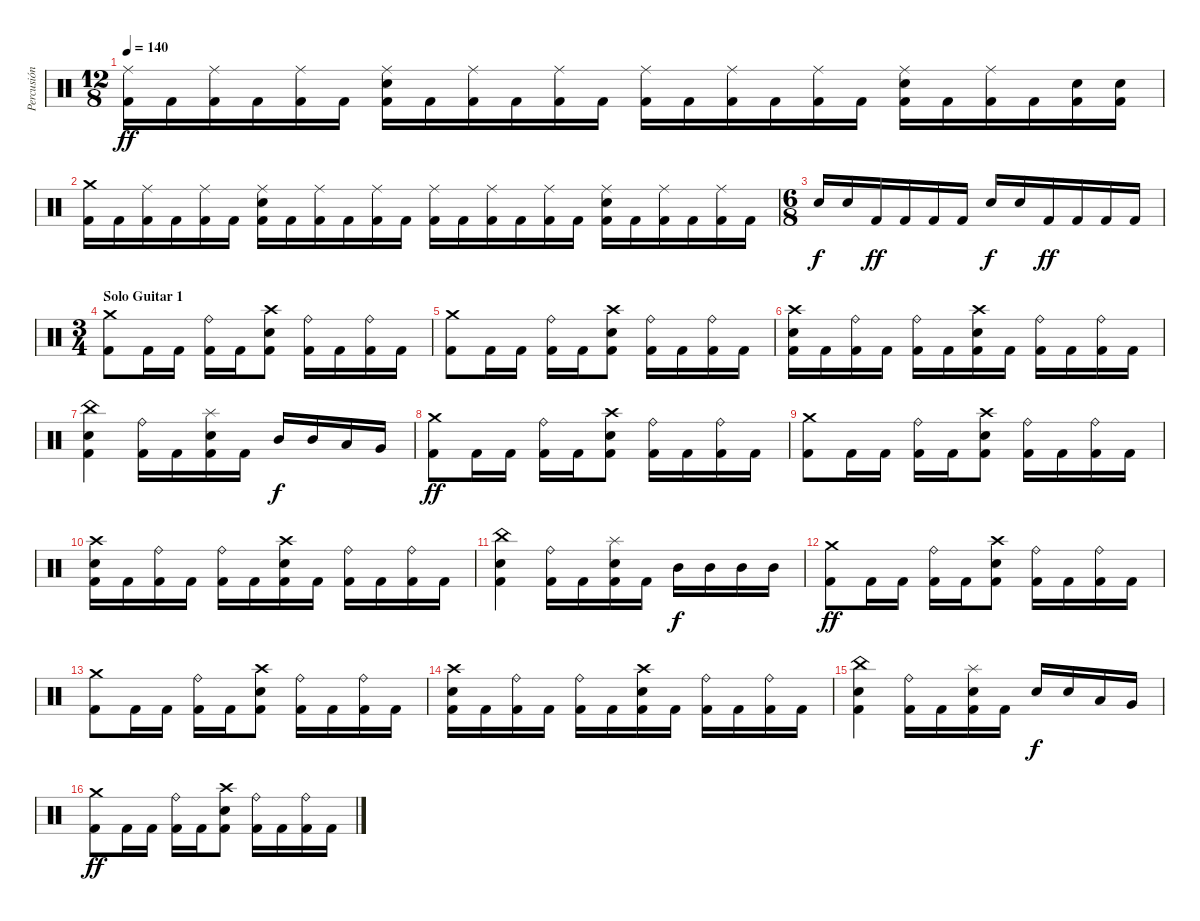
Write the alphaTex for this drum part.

\track ("Percusión" "Percusión") {instrument percussion}
\staff {score}
\articulation defaults
\ts (12 8)
\tempo 140
\clef neutral
\ks c
("Ride (middle)" "Kick (hit) 2").16{dy ff} "Kick (hit) 2".16 ("Ride (middle)" "Kick (hit) 2").16 "Kick (hit) 2".16 ("Ride (middle)" "Kick (hit) 2").16 "Kick (hit) 2".16 ("Ride (middle)" "Electric Snare (hit)" "Kick (hit) 2").16 "Kick (hit) 2".16 ("Ride (middle)" "Kick (hit) 2").16 "Kick (hit) 2".16 ("Ride (middle)" "Kick (hit) 2").16 "Kick (hit) 2".16 ("Ride (middle)" "Kick (hit) 2").16 "Kick (hit) 2".16 ("Ride (middle)" "Kick (hit) 2").16 "Kick (hit) 2".16 ("Ride (middle)" "Kick (hit) 2").16 "Kick (hit) 2".16 ("Ride (middle)" "Electric Snare (hit)" "Kick (hit) 2").16 "Kick (hit) 2".16 ("Ride (middle)" "Kick (hit) 2").16 "Kick (hit) 2".16 ("Electric Snare (hit)" "Kick (hit) 2").16 ("Electric Snare (hit)" "Kick (hit) 2").16 |
("Crash medium (hit)" "Kick (hit) 2").16 "Kick (hit) 2".16 ("Ride (middle)" "Kick (hit) 2").16 "Kick (hit) 2".16 ("Ride (middle)" "Kick (hit) 2").16 "Kick (hit) 2".16 ("Ride (middle)" "Electric Snare (hit)" "Kick (hit) 2").16 "Kick (hit) 2".16 ("Ride (middle)" "Kick (hit) 2").16 "Kick (hit) 2".16 ("Ride (middle)" "Kick (hit) 2").16 "Kick (hit) 2".16 ("Ride (middle)" "Kick (hit) 2").16 "Kick (hit) 2".16 ("Ride (middle)" "Kick (hit) 2").16 "Kick (hit) 2".16 ("Ride (middle)" "Kick (hit) 2").16 "Kick (hit) 2".16 ("Ride (middle)" "Electric Snare (hit)" "Kick (hit) 2").16 "Kick (hit) 2".16 ("Ride (middle)" "Kick (hit) 2").16 "Kick (hit) 2".16 ("Ride (middle)" "Kick (hit) 2").16 "Kick (hit) 2".16 |
\ts (6 8)
"Electric Snare (hit)".16{dy f} "Electric Snare (hit)".16 "Kick (hit) 2".16{dy ff} "Kick (hit) 2".16 "Kick (hit) 2".16 "Kick (hit) 2".16 "Electric Snare (hit)".16{dy f} "Electric Snare (hit)".16 "Kick (hit) 2".16{dy ff} "Kick (hit) 2".16 "Kick (hit) 2".16 "Kick (hit) 2".16 |
\ts (3 4)
\section ("" "Solo Guitar 1")
("Crash medium (hit)" "Kick (hit) 2").8 "Kick (hit) 2".16 "Kick (hit) 2".16 ("Ride (bell)" "Kick (hit) 2").16 "Kick (hit) 2".16 ("Crash high (hit)" "Electric Snare (hit)" "Kick (hit) 2").8 ("Ride (bell)" "Kick (hit) 2").16 "Kick (hit) 2".16 ("Ride (bell)" "Kick (hit) 2").16 "Kick (hit) 2".16 |
("Crash medium (hit)" "Kick (hit) 2").8 "Kick (hit) 2".16 "Kick (hit) 2".16 ("Ride (bell)" "Kick (hit) 2").16 "Kick (hit) 2".16 ("Crash high (hit)" "Electric Snare (hit)" "Kick (hit) 2").8 ("Ride (bell)" "Kick (hit) 2").16 "Kick (hit) 2".16 ("Ride (bell)" "Kick (hit) 2").16 "Kick (hit) 2".16 |
("Crash high (hit)" "Electric Snare (hit)" "Kick (hit) 2").16 "Kick (hit) 2".16 ("Ride (bell)" "Kick (hit) 2").16 "Kick (hit) 2".16 ("Ride (bell)" "Kick (hit) 2").16 "Kick (hit) 2".16 ("Crash high (hit)" "Electric Snare (hit)" "Kick (hit) 2").16 "Kick (hit) 2".16 ("Ride (bell)" "Kick (hit) 2").16 "Kick (hit) 2".16 ("Ride (bell)" "Kick (hit) 2").16 "Kick (hit) 2".16 |
("China (hit)" "Electric Snare (hit)" "Kick (hit) 2").4 ("Ride (bell)" "Kick (hit) 2").16 "Kick (hit) 2".16 ("Splash (hit)" "Electric Snare (hit)" "Kick (hit) 2").16 "Kick (hit) 2".16 "Mid Tom (hit)".16{dy f} "Mid Tom (hit)".16 "Low Tom (hit)".16 "Very Low Tom (hit)".16 |
("Crash medium (hit)" "Kick (hit) 2").8{dy ff} "Kick (hit) 2".16 "Kick (hit) 2".16 ("Ride (bell)" "Kick (hit) 2").16 "Kick (hit) 2".16 ("Crash high (hit)" "Electric Snare (hit)" "Kick (hit) 2").8 ("Ride (bell)" "Kick (hit) 2").16 "Kick (hit) 2".16 ("Ride (bell)" "Kick (hit) 2").16 "Kick (hit) 2".16 |
("Crash medium (hit)" "Kick (hit) 2").8 "Kick (hit) 2".16 "Kick (hit) 2".16 ("Ride (bell)" "Kick (hit) 2").16 "Kick (hit) 2".16 ("Crash high (hit)" "Electric Snare (hit)" "Kick (hit) 2").8 ("Ride (bell)" "Kick (hit) 2").16 "Kick (hit) 2".16 ("Ride (bell)" "Kick (hit) 2").16 "Kick (hit) 2".16 |
("Crash high (hit)" "Electric Snare (hit)" "Kick (hit) 2").16 "Kick (hit) 2".16 ("Ride (bell)" "Kick (hit) 2").16 "Kick (hit) 2".16 ("Ride (bell)" "Kick (hit) 2").16 "Kick (hit) 2".16 ("Crash high (hit)" "Electric Snare (hit)" "Kick (hit) 2").16 "Kick (hit) 2".16 ("Ride (bell)" "Kick (hit) 2").16 "Kick (hit) 2".16 ("Ride (bell)" "Kick (hit) 2").16 "Kick (hit) 2".16 |
("China (hit)" "Electric Snare (hit)" "Kick (hit) 2").4 ("Ride (bell)" "Kick (hit) 2").16 "Kick (hit) 2".16 ("Splash (hit)" "Electric Snare (hit)" "Kick (hit) 2").16 "Kick (hit) 2".16 "Mid Tom (hit)".16{dy f} "Mid Tom (hit)".16 "Mid Tom (hit)".16 "Mid Tom (hit)".16 |
("Crash medium (hit)" "Kick (hit) 2").8{dy ff} "Kick (hit) 2".16 "Kick (hit) 2".16 ("Ride (bell)" "Kick (hit) 2").16 "Kick (hit) 2".16 ("Crash high (hit)" "Electric Snare (hit)" "Kick (hit) 2").8 ("Ride (bell)" "Kick (hit) 2").16 "Kick (hit) 2".16 ("Ride (bell)" "Kick (hit) 2").16 "Kick (hit) 2".16 |
("Crash medium (hit)" "Kick (hit) 2").8 "Kick (hit) 2".16 "Kick (hit) 2".16 ("Ride (bell)" "Kick (hit) 2").16 "Kick (hit) 2".16 ("Crash high (hit)" "Electric Snare (hit)" "Kick (hit) 2").8 ("Ride (bell)" "Kick (hit) 2").16 "Kick (hit) 2".16 ("Ride (bell)" "Kick (hit) 2").16 "Kick (hit) 2".16 |
("Crash high (hit)" "Electric Snare (hit)" "Kick (hit) 2").16 "Kick (hit) 2".16 ("Ride (bell)" "Kick (hit) 2").16 "Kick (hit) 2".16 ("Ride (bell)" "Kick (hit) 2").16 "Kick (hit) 2".16 ("Crash high (hit)" "Electric Snare (hit)" "Kick (hit) 2").16 "Kick (hit) 2".16 ("Ride (bell)" "Kick (hit) 2").16 "Kick (hit) 2".16 ("Ride (bell)" "Kick (hit) 2").16 "Kick (hit) 2".16 |
("China (hit)" "Electric Snare (hit)" "Kick (hit) 2").4 ("Ride (bell)" "Kick (hit) 2").16 "Kick (hit) 2".16 ("Splash (hit)" "Electric Snare (hit)" "Kick (hit) 2").16 "Kick (hit) 2".16 "Electric Snare (hit)".16{dy f} "Electric Snare (hit)".16 "Low Tom (hit)".16 "Very Low Tom (hit)".16 |
("Crash medium (hit)" "Kick (hit) 2").8{dy ff} "Kick (hit) 2".16 "Kick (hit) 2".16 ("Ride (bell)" "Kick (hit) 2").16 "Kick (hit) 2".16 ("Crash high (hit)" "Electric Snare (hit)" "Kick (hit) 2").8 ("Ride (bell)" "Kick (hit) 2").16 "Kick (hit) 2".16 ("Ride (bell)" "Kick (hit) 2").16 "Kick (hit) 2".16
